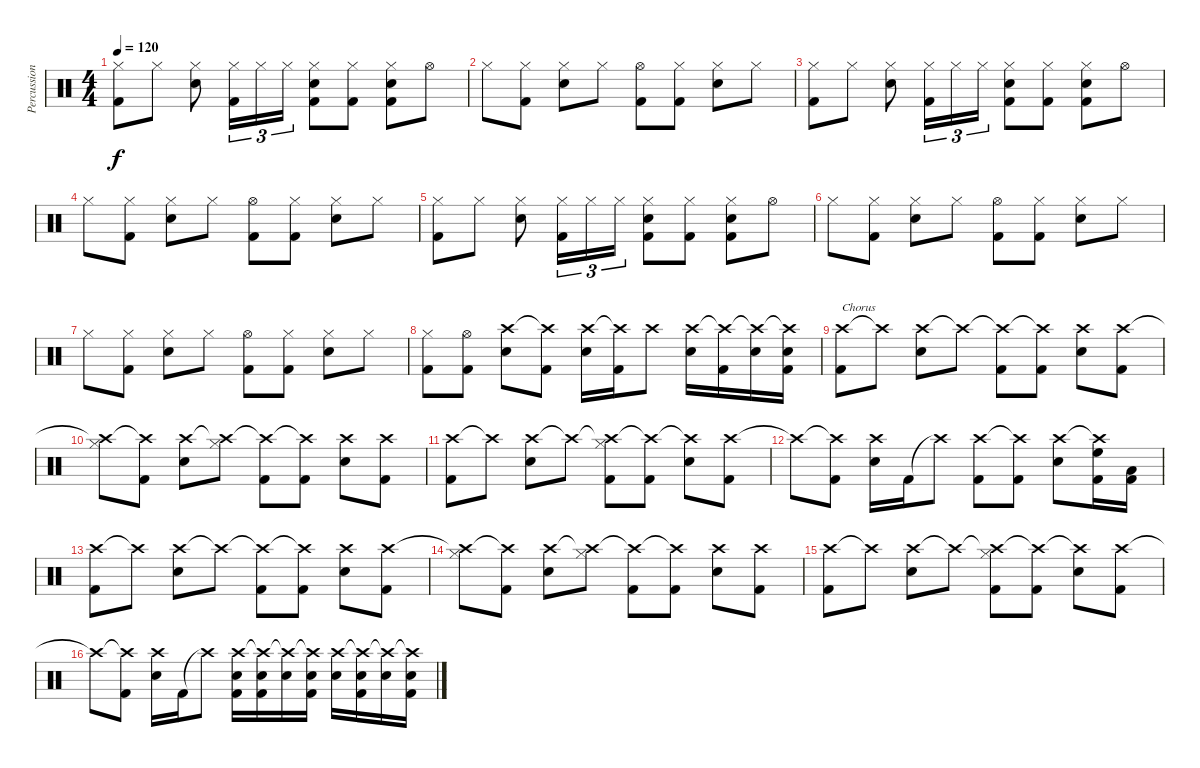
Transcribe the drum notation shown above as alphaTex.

\track ("Percussion" "Percussion") {instrument percussion}
\staff {score}
\articulation defaults
\ts (4 4)
\tempo 120
\clef neutral
\ks c
("Hi-Hat (closed)" "Kick (hit) 2").8{dy f} "Hi-Hat (closed)".8 ("Hi-Hat (closed)" "Electric Snare (hit)").8 ("Hi-Hat (closed)" "Kick (hit) 2").16{tu (3 2)} "Hi-Hat (closed)".16{tu (3 2)} "Hi-Hat (closed)".16{tu (3 2)} ("Hi-Hat (closed)" "Electric Snare (hit)" "Kick (hit) 2").8 ("Hi-Hat (closed)" "Kick (hit) 2").8 ("Hi-Hat (closed)" "Electric Snare (hit)" "Kick (hit) 2").8 "Hi-Hat (open)".8 |
"Hi-Hat (closed)".8 ("Hi-Hat (closed)" "Kick (hit) 2").8 ("Hi-Hat (closed)" "Electric Snare (hit)").8 "Hi-Hat (closed)".8 ("Hi-Hat (open)" "Kick (hit) 2").8 ("Hi-Hat (closed)" "Kick (hit) 2").8 ("Hi-Hat (closed)" "Electric Snare (hit)").8 "Hi-Hat (closed)".8 |
("Hi-Hat (closed)" "Kick (hit) 2").8 "Hi-Hat (closed)".8 ("Hi-Hat (closed)" "Electric Snare (hit)").8 ("Hi-Hat (closed)" "Kick (hit) 2").16{tu (3 2)} "Hi-Hat (closed)".16{tu (3 2)} "Hi-Hat (closed)".16{tu (3 2)} ("Hi-Hat (closed)" "Electric Snare (hit)" "Kick (hit) 2").8 ("Hi-Hat (closed)" "Kick (hit) 2").8 ("Hi-Hat (closed)" "Electric Snare (hit)" "Kick (hit) 2").8 "Hi-Hat (open)".8 |
"Hi-Hat (closed)".8 ("Hi-Hat (closed)" "Kick (hit) 2").8 ("Hi-Hat (closed)" "Electric Snare (hit)").8 "Hi-Hat (closed)".8 ("Hi-Hat (open)" "Kick (hit) 2").8 ("Hi-Hat (closed)" "Kick (hit) 2").8 ("Hi-Hat (closed)" "Electric Snare (hit)").8 "Hi-Hat (closed)".8 |
("Hi-Hat (closed)" "Kick (hit) 2").8 "Hi-Hat (closed)".8 ("Hi-Hat (closed)" "Electric Snare (hit)").8 ("Hi-Hat (closed)" "Kick (hit) 2").16{tu (3 2)} "Hi-Hat (closed)".16{tu (3 2)} "Hi-Hat (closed)".16{tu (3 2)} ("Hi-Hat (closed)" "Electric Snare (hit)" "Kick (hit) 2").8 ("Hi-Hat (closed)" "Kick (hit) 2").8 ("Hi-Hat (closed)" "Electric Snare (hit)" "Kick (hit) 2").8 "Hi-Hat (open)".8 |
"Hi-Hat (closed)".8 ("Hi-Hat (closed)" "Kick (hit) 2").8 ("Hi-Hat (closed)" "Electric Snare (hit)").8 "Hi-Hat (closed)".8 ("Hi-Hat (open)" "Kick (hit) 2").8 ("Hi-Hat (closed)" "Kick (hit) 2").8 ("Hi-Hat (closed)" "Electric Snare (hit)").8 "Hi-Hat (closed)".8 |
"Hi-Hat (closed)".8 ("Hi-Hat (closed)" "Kick (hit) 2").8 ("Hi-Hat (closed)" "Electric Snare (hit)").8 "Hi-Hat (closed)".8 ("Hi-Hat (open)" "Kick (hit) 2").8 ("Hi-Hat (closed)" "Kick (hit) 2").8 ("Hi-Hat (closed)" "Electric Snare (hit)").8 "Hi-Hat (closed)".8 |
("Hi-Hat (closed)" "Kick (hit) 2").8 ("Hi-Hat (open)" "Kick (hit) 2").8 ("Crash high (hit)" "Electric Snare (hit)").8 ("Crash high (hit)"{t} "Kick (hit) 2").8 ("Crash high (hit)" "Electric Snare (hit)").16 ("Crash high (hit)"{t} "Kick (hit) 2").16 "Crash high (hit)".8 ("Crash high (hit)" "Electric Snare (hit)").16 ("Crash high (hit)"{t} "Kick (hit) 2").16 ("Crash high (hit)"{t} "Electric Snare (hit)").16 ("Crash high (hit)"{t} "Electric Snare (hit)" "Kick (hit) 2").16 |
("Crash high (hit)" "Kick (hit) 2").8{txt "Chorus"} "Crash high (hit)"{t}.8 ("Crash high (hit)" "Electric Snare (hit)").8 "Crash high (hit)"{t}.8 ("Crash high (hit)"{t} "Kick (hit) 2").8 ("Crash high (hit)"{t} "Kick (hit) 2").8 ("Crash high (hit)" "Electric Snare (hit)").8 ("Crash high (hit)" "Kick (hit) 2").8 |
("Crash high (hit)"{t} "Hi-Hat (closed)").8 ("Crash high (hit)"{t} "Kick (hit) 2").8 ("Crash high (hit)" "Electric Snare (hit)").8 ("Crash high (hit)"{t} "Hi-Hat (closed)").8 ("Crash high (hit)"{t} "Kick (hit) 2").8 ("Crash high (hit)"{t} "Kick (hit) 2").8 ("Crash high (hit)" "Electric Snare (hit)").8 ("Crash high (hit)" "Kick (hit) 2").8 |
("Crash high (hit)" "Kick (hit) 2").8 "Crash high (hit)"{t}.8 ("Crash high (hit)" "Electric Snare (hit)").8 "Crash high (hit)"{t}.8 ("Crash high (hit)"{t} "Hi-Hat (closed)" "Kick (hit) 2").8 ("Crash high (hit)"{t} "Kick (hit) 2").8 ("Crash high (hit)"{t} "Electric Snare (hit)").8 ("Crash high (hit)" "Kick (hit) 2").8 |
"Crash high (hit)"{t}.8 ("Crash high (hit)"{t} "Kick (hit) 2").8 ("Crash high (hit)" "Electric Snare (hit)").16 "Kick (hit) 2".16 "Crash high (hit)"{t}.8 ("Crash high (hit)" "Kick (hit) 2").8 ("Crash high (hit)"{t} "Kick (hit) 2").8 ("Crash high (hit)" "Electric Snare (hit)").8 ("Crash high (hit)"{t} "High Floor Tom (hit)" "Kick (hit) 2").16 ("Low Floor Tom (hit)" "Kick (hit) 2").16 |
("Crash high (hit)" "Kick (hit) 2").8 "Crash high (hit)"{t}.8 ("Crash high (hit)" "Electric Snare (hit)").8 "Crash high (hit)"{t}.8 ("Crash high (hit)"{t} "Kick (hit) 2").8 ("Crash high (hit)"{t} "Kick (hit) 2").8 ("Crash high (hit)" "Electric Snare (hit)").8 ("Crash high (hit)" "Kick (hit) 2").8 |
("Crash high (hit)"{t} "Hi-Hat (closed)").8 ("Crash high (hit)"{t} "Kick (hit) 2").8 ("Crash high (hit)" "Electric Snare (hit)").8 ("Crash high (hit)"{t} "Hi-Hat (closed)").8 ("Crash high (hit)"{t} "Kick (hit) 2").8 ("Crash high (hit)"{t} "Kick (hit) 2").8 ("Crash high (hit)" "Electric Snare (hit)").8 ("Crash high (hit)" "Kick (hit) 2").8 |
("Crash high (hit)" "Kick (hit) 2").8 "Crash high (hit)"{t}.8 ("Crash high (hit)" "Electric Snare (hit)").8 "Crash high (hit)"{t}.8 ("Crash high (hit)"{t} "Hi-Hat (closed)" "Kick (hit) 2").8 ("Crash high (hit)"{t} "Kick (hit) 2").8 ("Crash high (hit)"{t} "Electric Snare (hit)").8 ("Crash high (hit)" "Kick (hit) 2").8 |
"Crash high (hit)"{t}.8 ("Crash high (hit)"{t} "Kick (hit) 2").8 ("Crash high (hit)" "Electric Snare (hit)").16 "Kick (hit) 2".16 "Crash high (hit)"{t}.8 ("Crash high (hit)" "Electric Snare (hit)" "Kick (hit) 2").16 ("Crash high (hit)"{t} "Electric Snare (hit)" "Kick (hit) 2").16 ("Crash high (hit)"{t} "Electric Snare (hit)").16 ("Crash high (hit)"{t} "Electric Snare (hit)" "Kick (hit) 2").16 ("Crash high (hit)" "Electric Snare (hit)").16 ("Crash high (hit)"{t} "Electric Snare (hit)" "Kick (hit) 2").16 ("Crash high (hit)"{t} "Electric Snare (hit)").16 ("Crash high (hit)"{t} "Electric Snare (hit)" "Kick (hit) 2").16
